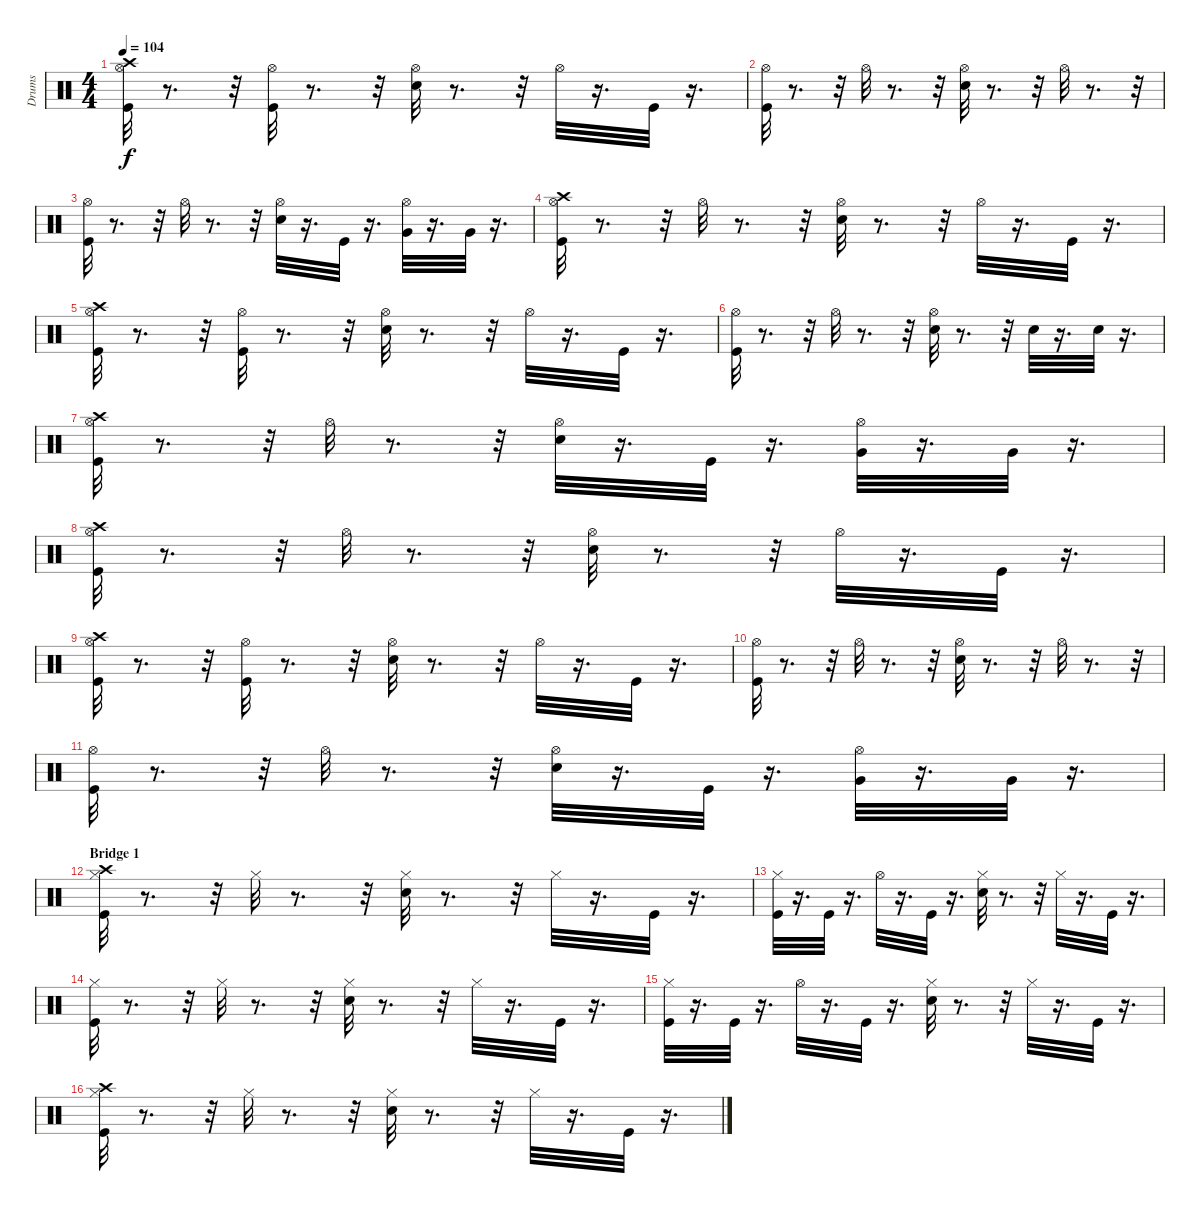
\track ("Drums" "Drums") {instrument percussion}
\staff {score}
\articulation defaults
\ts (4 4)
\tempo 104
\clef neutral
\ks c
("Crash high (hit)" "Hi-Hat (open)" "Kick (hit)").32{dy f} r.8{d} r.32 ("Kick (hit)" "Hi-Hat (open)").32 r.8{d} r.32 ("Hi-Hat (open)" "Electric Snare (hit)").32 r.8{d} r.32 "Hi-Hat (open)".32 r.16{d} "Kick (hit)".32 r.16{d} |
("Hi-Hat (open)" "Kick (hit)").32 r.8{d} r.32 "Hi-Hat (open)".32 r.8{d} r.32 ("Electric Snare (hit)" "Hi-Hat (open)").32 r.8{d} r.32 "Hi-Hat (open)".32 r.8{d} r.32 |
("Hi-Hat (open)" "Kick (hit)").32 r.8{d} r.32 "Hi-Hat (open)".32 r.8{d} r.32 ("Hi-Hat (open)" "Electric Snare (hit)").32 r.16{d} "Kick (hit)".32 r.16{d} ("Very Low Tom (hit)" "Hi-Hat (open)").32 r.16{d} "Very Low Tom (hit)".32 r.16{d} |
("Crash high (hit)" "Hi-Hat (open)" "Kick (hit)").32 r.8{d} r.32 "Hi-Hat (open)".32 r.8{d} r.32 ("Hi-Hat (open)" "Electric Snare (hit)").32 r.8{d} r.32 "Hi-Hat (open)".32 r.16{d} "Kick (hit)".32 r.16{d} |
("Crash high (hit)" "Hi-Hat (open)" "Kick (hit)").32 r.8{d} r.32 ("Kick (hit)" "Hi-Hat (open)").32 r.8{d} r.32 ("Hi-Hat (open)" "Electric Snare (hit)").32 r.8{d} r.32 "Hi-Hat (open)".32 r.16{d} "Kick (hit)".32 r.16{d} |
("Hi-Hat (open)" "Kick (hit)").32 r.8{d} r.32 "Hi-Hat (open)".32 r.8{d} r.32 ("Electric Snare (hit)" "Hi-Hat (open)").32 r.8{d} r.32 "Electric Snare (hit)".32 r.16{d} "Electric Snare (hit)".32 r.16{d} |
("Crash high (hit)" "Hi-Hat (open)" "Kick (hit)").32 r.8{d} r.32 "Hi-Hat (open)".32 r.8{d} r.32 ("Hi-Hat (open)" "Electric Snare (hit)").32 r.16{d} "Kick (hit)".32 r.16{d} ("Very Low Tom (hit)" "Hi-Hat (open)").32 r.16{d} "Very Low Tom (hit)".32 r.16{d} |
("Crash high (hit)" "Hi-Hat (open)" "Kick (hit)").32 r.8{d} r.32 "Hi-Hat (open)".32 r.8{d} r.32 ("Hi-Hat (open)" "Electric Snare (hit)").32 r.8{d} r.32 "Hi-Hat (open)".32 r.16{d} "Kick (hit)".32 r.16{d} |
("Crash high (hit)" "Hi-Hat (open)" "Kick (hit)").32 r.8{d} r.32 ("Kick (hit)" "Hi-Hat (open)").32 r.8{d} r.32 ("Hi-Hat (open)" "Electric Snare (hit)").32 r.8{d} r.32 "Hi-Hat (open)".32 r.16{d} "Kick (hit)".32 r.16{d} |
("Hi-Hat (open)" "Kick (hit)").32 r.8{d} r.32 "Hi-Hat (open)".32 r.8{d} r.32 ("Electric Snare (hit)" "Hi-Hat (open)").32 r.8{d} r.32 "Hi-Hat (open)".32 r.8{d} r.32 |
("Hi-Hat (open)" "Kick (hit)").32 r.8{d} r.32 "Hi-Hat (open)".32 r.8{d} r.32 ("Hi-Hat (open)" "Electric Snare (hit)").32 r.16{d} "Kick (hit)".32 r.16{d} ("Very Low Tom (hit)" "Hi-Hat (open)").32 r.16{d} "Very Low Tom (hit)".32 r.16{d} |
\section ("" "Bridge 1")
("Hi-Hat (closed)" "Crash high (hit)" "Kick (hit)").32 r.8{d} r.32 "Hi-Hat (closed)".32 r.8{d} r.32 ("Electric Snare (hit)" "Hi-Hat (closed)").32 r.8{d} r.32 "Hi-Hat (closed)".32 r.16{d} "Kick (hit)".32 r.16{d} |
("Hi-Hat (closed)" "Kick (hit)").32 r.16{d} "Kick (hit)".32 r.16{d} "Hi-Hat (open)".32 r.16{d} "Kick (hit)".32 r.16{d} ("Hi-Hat (closed)" "Electric Snare (hit)").32 r.8{d} r.32 "Hi-Hat (closed)".32 r.16{d} "Kick (hit)".32 r.16{d} |
("Hi-Hat (closed)" "Kick (hit)").32 r.8{d} r.32 "Hi-Hat (closed)".32 r.8{d} r.32 ("Electric Snare (hit)" "Hi-Hat (closed)").32 r.8{d} r.32 "Hi-Hat (closed)".32 r.16{d} "Kick (hit)".32 r.16{d} |
("Hi-Hat (closed)" "Kick (hit)").32 r.16{d} "Kick (hit)".32 r.16{d} "Hi-Hat (open)".32 r.16{d} "Kick (hit)".32 r.16{d} ("Hi-Hat (closed)" "Electric Snare (hit)").32 r.8{d} r.32 "Hi-Hat (closed)".32 r.16{d} "Kick (hit)".32 r.16{d} |
("Hi-Hat (closed)" "Crash high (hit)" "Kick (hit)").32 r.8{d} r.32 "Hi-Hat (closed)".32 r.8{d} r.32 ("Electric Snare (hit)" "Hi-Hat (closed)").32 r.8{d} r.32 "Hi-Hat (closed)".32 r.16{d} "Kick (hit)".32 r.16{d}
